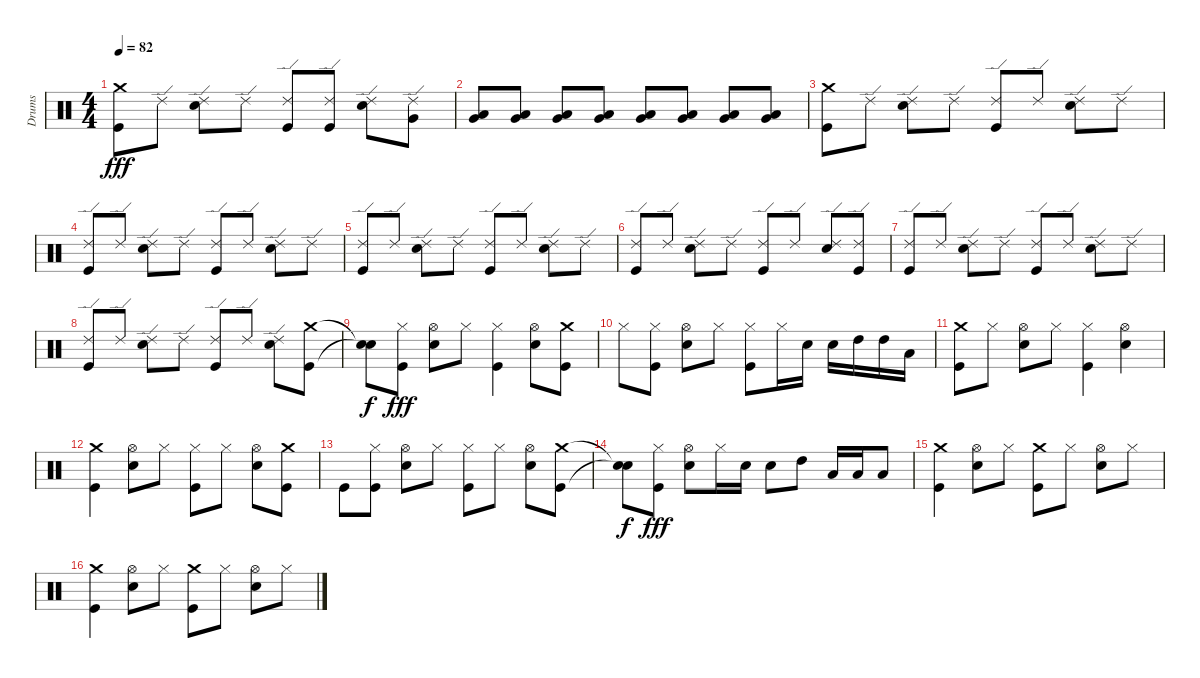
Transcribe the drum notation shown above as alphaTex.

\track ("Drums" "Drums") {instrument percussion}
\staff {score}
\articulation defaults
\ts (4 4)
\tempo 82
\clef neutral
\ks c
("Crash medium (hit)" "Kick (hit)").8{dy fff} "Ride (edge) 2".8 ("Ride (edge) 2" "Snare (hit) 2").8 "Ride (edge) 2".8 ("Ride (edge) 2" "Kick (hit)").8 ("Ride (edge) 2" "Kick (hit)").8 ("Ride (edge) 2" "Snare (hit) 2").8 ("Ride (edge) 2" "Very Low Tom (hit)").8 |
("Low Tom (hit)" "Very Low Tom (hit)").8 ("Low Tom (hit)" "Very Low Tom (hit)").8 ("Low Tom (hit)" "Very Low Tom (hit)").8 ("Low Tom (hit)" "Very Low Tom (hit)").8 ("Low Tom (hit)" "Very Low Tom (hit)").8 ("Low Tom (hit)" "Very Low Tom (hit)").8 ("Low Tom (hit)" "Very Low Tom (hit)").8 ("Low Tom (hit)" "Very Low Tom (hit)").8 |
("Crash medium (hit)" "Kick (hit)").8 "Ride (edge) 2".8 ("Ride (edge) 2" "Snare (hit) 2").8 "Ride (edge) 2".8 ("Ride (edge) 2" "Kick (hit)").8 "Ride (edge) 2".8 ("Ride (edge) 2" "Snare (hit) 2").8 "Ride (edge) 2".8 |
("Ride (edge) 2" "Kick (hit)").8 "Ride (edge) 2".8 ("Ride (edge) 2" "Snare (hit) 2").8 "Ride (edge) 2".8 ("Ride (edge) 2" "Kick (hit)").8 "Ride (edge) 2".8 ("Ride (edge) 2" "Snare (hit) 2").8 "Ride (edge) 2".8 |
("Ride (edge) 2" "Kick (hit)").8 "Ride (edge) 2".8 ("Ride (edge) 2" "Snare (hit) 2").8 "Ride (edge) 2".8 ("Ride (edge) 2" "Kick (hit)").8 "Ride (edge) 2".8 ("Ride (edge) 2" "Snare (hit) 2").8 "Ride (edge) 2".8 |
("Ride (edge) 2" "Kick (hit)").8 "Ride (edge) 2".8 ("Ride (edge) 2" "Snare (hit) 2").8 "Ride (edge) 2".8 ("Ride (edge) 2" "Kick (hit)").8 "Ride (edge) 2".8 ("Ride (edge) 2" "Snare (hit) 2").8 ("Ride (edge) 2" "Kick (hit)").8 |
("Ride (edge) 2" "Kick (hit)").8 "Ride (edge) 2".8 ("Ride (edge) 2" "Snare (hit) 2").8 "Ride (edge) 2".8 ("Ride (edge) 2" "Kick (hit)").8 "Ride (edge) 2".8 ("Ride (edge) 2" "Snare (hit) 2").8 "Ride (edge) 2".8 |
("Ride (edge) 2" "Kick (hit)").8 "Ride (edge) 2".8 ("Ride (edge) 2" "Snare (hit) 2").8 "Ride (edge) 2".8 ("Ride (edge) 2" "Kick (hit)").8 "Ride (edge) 2".8 ("Ride (edge) 2" "Snare (hit) 2").8 ("Crash medium (hit)" "Kick (hit)").8 |
("Snare (hit)"{t} "Snare (hit)"{t}).8{dy f} ("Hi-Hat (closed)" "Kick (hit)").8{dy fff} ("Hi-Hat (open)" "Snare (hit) 2").8 "Hi-Hat (closed)".8 ("Hi-Hat (closed)" "Kick (hit)").4 ("Hi-Hat (open)" "Snare (hit) 2").8 ("Crash medium (hit)" "Kick (hit)").8 |
"Hi-Hat (closed)".8 ("Hi-Hat (closed)" "Kick (hit)").8 ("Hi-Hat (open)" "Snare (hit) 2").8 "Hi-Hat (closed)".8 ("Hi-Hat (closed)" "Kick (hit)").8 "Hi-Hat (closed)".16 "Snare (hit) 2".16 "Snare (hit) 2".16 "High Tom (hit)".16 "High Tom (hit)".16 "Low Tom (hit)".16 |
("Crash medium (hit)" "Kick (hit)").8 "Hi-Hat (closed)".8 ("Hi-Hat (open)" "Snare (hit) 2").8 "Hi-Hat (closed)".8 ("Hi-Hat (closed)" "Kick (hit)").4 ("Hi-Hat (open)" "Snare (hit) 2").4 |
("Crash medium (hit)" "Kick (hit)").4 ("Hi-Hat (open)" "Snare (hit) 2").8 "Hi-Hat (closed)".8 ("Hi-Hat (closed)" "Kick (hit)").8 "Hi-Hat (closed)".8 ("Hi-Hat (open)" "Snare (hit) 2").8 ("Crash medium (hit)" "Kick (hit)").8 |
"Kick (hit)".8 ("Hi-Hat (closed)" "Kick (hit)").8 ("Hi-Hat (open)" "Snare (hit) 2").8 "Hi-Hat (closed)".8 ("Hi-Hat (closed)" "Kick (hit)").8 "Hi-Hat (closed)".8 ("Hi-Hat (open)" "Snare (hit) 2").8 ("Crash medium (hit)" "Kick (hit)").8 |
("Snare (hit)"{t} "Snare (hit)"{t}).8{dy f} ("Hi-Hat (closed)" "Kick (hit)").8{dy fff} ("Hi-Hat (open)" "Snare (hit) 2").8 "Hi-Hat (closed)".16 "Snare (hit) 2".16 "Snare (hit) 2".8 "High Tom (hit)".8 "Low Tom (hit)".16 "Low Tom (hit)".16 "Low Tom (hit)".8 |
("Crash medium (hit)" "Kick (hit)").4 ("Hi-Hat (open)" "Snare (hit) 2").8 "Hi-Hat (closed)".8 ("Crash medium (hit)" "Kick (hit)").8 "Hi-Hat (closed)".8 ("Hi-Hat (open)" "Snare (hit) 2").8 "Hi-Hat (closed)".8 |
("Crash medium (hit)" "Kick (hit)").4 ("Hi-Hat (open)" "Snare (hit) 2").8 "Hi-Hat (closed)".8 ("Crash medium (hit)" "Kick (hit)").8 "Hi-Hat (closed)".8 ("Hi-Hat (open)" "Snare (hit) 2").8 "Hi-Hat (closed)".8
